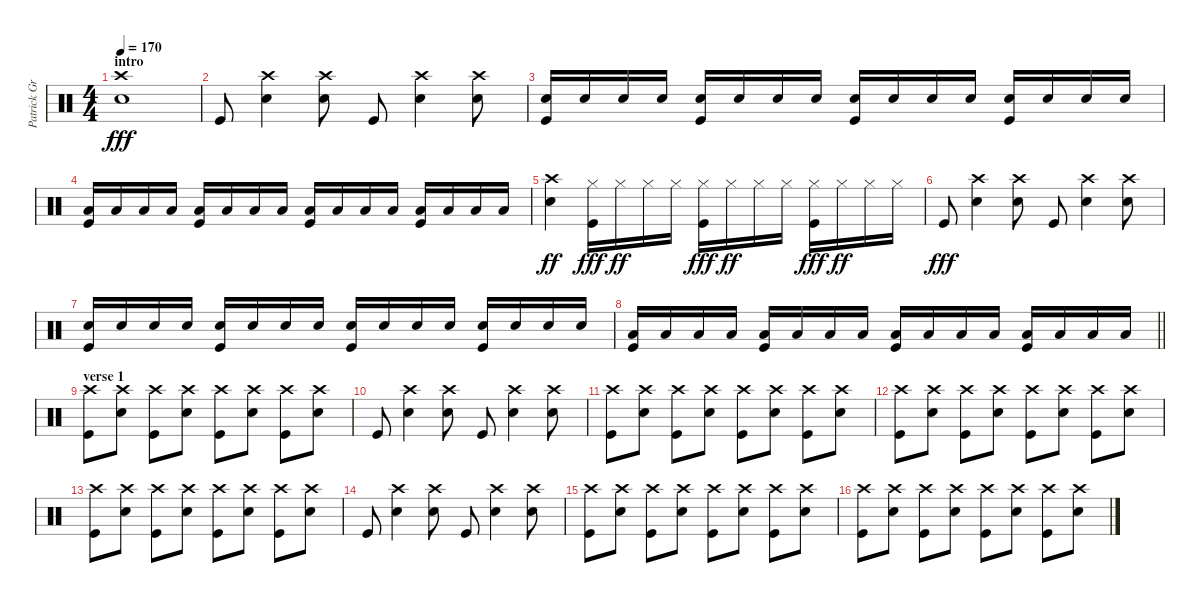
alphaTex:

\track ("Patrick Grün - Drums" "Patrick Gr") {instrument percussion}
\staff {score}
\articulation defaults
\ts (4 4)
\section ("" "intro")
\tempo 170
\clef neutral
\ks c
("Snare (hit) 2" "Crash high (hit)").1{dy fff} |
"Kick (hit)".8 ("Snare (hit) 2" "Crash high (hit)").4 ("Snare (hit) 2" "Crash high (hit)").8 "Kick (hit)".8 ("Snare (hit) 2" "Crash high (hit)").4 ("Snare (hit) 2" "Crash high (hit)").8 |
("Snare (hit) 2" "Kick (hit)").16 "Snare (hit) 2".16 "Snare (hit) 2".16 "Snare (hit) 2".16 ("Snare (hit) 2" "Kick (hit)").16 "Snare (hit) 2".16 "Snare (hit) 2".16 "Snare (hit) 2".16 ("Snare (hit) 2" "Kick (hit)").16 "Snare (hit) 2".16 "Snare (hit) 2".16 "Snare (hit) 2".16 ("Snare (hit) 2" "Kick (hit)").16 "Snare (hit) 2".16 "Snare (hit) 2".16 "Snare (hit) 2".16 |
("Low Tom (hit)" "Kick (hit)").16 "Low Tom (hit)".16 "Low Tom (hit)".16 "Low Tom (hit)".16 ("Low Tom (hit)" "Kick (hit)").16 "Low Tom (hit)".16 "Low Tom (hit)".16 "Low Tom (hit)".16 ("Low Tom (hit)" "Kick (hit)").16 "Low Tom (hit)".16 "Low Tom (hit)".16 "Low Tom (hit)".16 ("Low Tom (hit)" "Kick (hit)").16 "Low Tom (hit)".16 "Low Tom (hit)".16 "Low Tom (hit)".16 |
("Snare (hit) 2" "Crash high (hit)").4{dy ff} ("Hi-Hat (closed)" "Kick (hit)").16{dy fff} "Hi-Hat (closed)".16{dy ff} "Hi-Hat (closed)".16 "Hi-Hat (closed)".16 ("Hi-Hat (closed)" "Kick (hit)").16{dy fff} "Hi-Hat (closed)".16{dy ff} "Hi-Hat (closed)".16 "Hi-Hat (closed)".16 ("Hi-Hat (closed)" "Kick (hit)").16{dy fff} "Hi-Hat (closed)".16{dy ff} "Hi-Hat (closed)".16 "Hi-Hat (closed)".16 |
"Kick (hit)".8{dy fff} ("Snare (hit) 2" "Crash high (hit)").4 ("Snare (hit) 2" "Crash high (hit)").8 "Kick (hit)".8 ("Snare (hit) 2" "Crash high (hit)").4 ("Snare (hit) 2" "Crash high (hit)").8 |
("Snare (hit) 2" "Kick (hit)").16 "Snare (hit) 2".16 "Snare (hit) 2".16 "Snare (hit) 2".16 ("Snare (hit) 2" "Kick (hit)").16 "Snare (hit) 2".16 "Snare (hit) 2".16 "Snare (hit) 2".16 ("Snare (hit) 2" "Kick (hit)").16 "Snare (hit) 2".16 "Snare (hit) 2".16 "Snare (hit) 2".16 ("Snare (hit) 2" "Kick (hit)").16 "Snare (hit) 2".16 "Snare (hit) 2".16 "Snare (hit) 2".16 |
\barLineRight lightlight
("Low Tom (hit)" "Kick (hit)").16 "Low Tom (hit)".16 "Low Tom (hit)".16 "Low Tom (hit)".16 ("Low Tom (hit)" "Kick (hit)").16 "Low Tom (hit)".16 "Low Tom (hit)".16 "Low Tom (hit)".16 ("Low Tom (hit)" "Kick (hit)").16 "Low Tom (hit)".16 "Low Tom (hit)".16 "Low Tom (hit)".16 ("Low Tom (hit)" "Kick (hit)").16 "Low Tom (hit)".16 "Low Tom (hit)".16 "Low Tom (hit)".16 |
\section ("" "verse 1")
("Kick (hit)" "Crash high (hit)").8 ("Snare (hit) 2" "Crash high (hit)").8 ("Kick (hit)" "Crash high (hit)").8 ("Snare (hit) 2" "Crash high (hit)").8 ("Kick (hit)" "Crash high (hit)").8 ("Snare (hit) 2" "Crash high (hit)").8 ("Kick (hit)" "Crash high (hit)").8 ("Snare (hit) 2" "Crash high (hit)").8 |
"Kick (hit)".8 ("Snare (hit) 2" "Crash high (hit)").4 ("Snare (hit) 2" "Crash high (hit)").8 "Kick (hit)".8 ("Snare (hit) 2" "Crash high (hit)").4 ("Snare (hit) 2" "Crash high (hit)").8 |
("Kick (hit)" "Crash high (hit)").8 ("Snare (hit) 2" "Crash high (hit)").8 ("Kick (hit)" "Crash high (hit)").8 ("Snare (hit) 2" "Crash high (hit)").8 ("Kick (hit)" "Crash high (hit)").8 ("Snare (hit) 2" "Crash high (hit)").8 ("Kick (hit)" "Crash high (hit)").8 ("Snare (hit) 2" "Crash high (hit)").8 |
("Kick (hit)" "Crash high (hit)").8 ("Snare (hit) 2" "Crash high (hit)").8 ("Kick (hit)" "Crash high (hit)").8 ("Snare (hit) 2" "Crash high (hit)").8 ("Kick (hit)" "Crash high (hit)").8 ("Snare (hit) 2" "Crash high (hit)").8 ("Kick (hit)" "Crash high (hit)").8 ("Snare (hit) 2" "Crash high (hit)").8 |
("Kick (hit)" "Crash high (hit)").8 ("Snare (hit) 2" "Crash high (hit)").8 ("Kick (hit)" "Crash high (hit)").8 ("Snare (hit) 2" "Crash high (hit)").8 ("Kick (hit)" "Crash high (hit)").8 ("Snare (hit) 2" "Crash high (hit)").8 ("Kick (hit)" "Crash high (hit)").8 ("Snare (hit) 2" "Crash high (hit)").8 |
"Kick (hit)".8 ("Snare (hit) 2" "Crash high (hit)").4 ("Snare (hit) 2" "Crash high (hit)").8 "Kick (hit)".8 ("Snare (hit) 2" "Crash high (hit)").4 ("Snare (hit) 2" "Crash high (hit)").8 |
("Kick (hit)" "Crash high (hit)").8 ("Snare (hit) 2" "Crash high (hit)").8 ("Kick (hit)" "Crash high (hit)").8 ("Snare (hit) 2" "Crash high (hit)").8 ("Kick (hit)" "Crash high (hit)").8 ("Snare (hit) 2" "Crash high (hit)").8 ("Kick (hit)" "Crash high (hit)").8 ("Snare (hit) 2" "Crash high (hit)").8 |
("Kick (hit)" "Crash high (hit)").8 ("Snare (hit) 2" "Crash high (hit)").8 ("Kick (hit)" "Crash high (hit)").8 ("Snare (hit) 2" "Crash high (hit)").8 ("Kick (hit)" "Crash high (hit)").8 ("Snare (hit) 2" "Crash high (hit)").8 ("Kick (hit)" "Crash high (hit)").8 ("Snare (hit) 2" "Crash high (hit)").8
